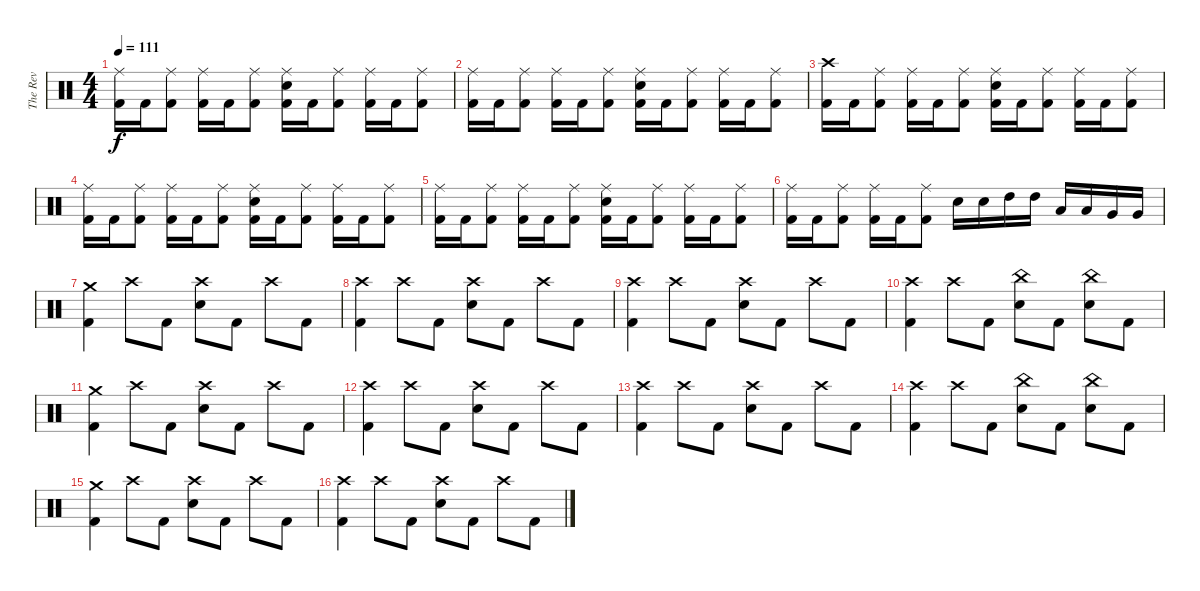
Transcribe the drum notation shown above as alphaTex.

\track ("The Rev" "The Rev") {instrument percussion}
\staff {score}
\articulation defaults
\ts (4 4)
\tempo 111
\clef neutral
\ks c
("Ride (middle)" "Kick (hit) 2").16{dy f} "Kick (hit) 2".16 ("Ride (middle)" "Kick (hit) 2").8 ("Ride (middle)" "Kick (hit) 2").16 "Kick (hit) 2".16 ("Ride (middle)" "Kick (hit) 2").8 ("Ride (middle)" "Snare (hit) 2" "Kick (hit) 2").16 "Kick (hit) 2".16 ("Ride (middle)" "Kick (hit) 2").8 ("Ride (middle)" "Kick (hit) 2").16 "Kick (hit) 2".16 ("Ride (middle)" "Kick (hit) 2").8 |
("Ride (middle)" "Kick (hit) 2").16 "Kick (hit) 2".16 ("Ride (middle)" "Kick (hit) 2").8 ("Ride (middle)" "Kick (hit) 2").16 "Kick (hit) 2".16 ("Ride (middle)" "Kick (hit) 2").8 ("Ride (middle)" "Snare (hit) 2" "Kick (hit) 2").16 "Kick (hit) 2".16 ("Ride (middle)" "Kick (hit) 2").8 ("Ride (middle)" "Kick (hit) 2").16 "Kick (hit) 2".16 ("Ride (middle)" "Kick (hit) 2").8 |
("Crash high (hit)" "Kick (hit) 2").16 "Kick (hit) 2".16 ("Ride (middle)" "Kick (hit) 2").8 ("Ride (middle)" "Kick (hit) 2").16 "Kick (hit) 2".16 ("Ride (middle)" "Kick (hit) 2").8 ("Ride (middle)" "Snare (hit) 2" "Kick (hit) 2").16 "Kick (hit) 2".16 ("Ride (middle)" "Kick (hit) 2").8 ("Ride (middle)" "Kick (hit) 2").16 "Kick (hit) 2".16 ("Ride (middle)" "Kick (hit) 2").8 |
("Ride (middle)" "Kick (hit) 2").16 "Kick (hit) 2".16 ("Ride (middle)" "Kick (hit) 2").8 ("Ride (middle)" "Kick (hit) 2").16 "Kick (hit) 2".16 ("Ride (middle)" "Kick (hit) 2").8 ("Ride (middle)" "Snare (hit) 2" "Kick (hit) 2").16 "Kick (hit) 2".16 ("Ride (middle)" "Kick (hit) 2").8 ("Ride (middle)" "Kick (hit) 2").16 "Kick (hit) 2".16 ("Ride (middle)" "Kick (hit) 2").8 |
("Ride (middle)" "Kick (hit) 2").16 "Kick (hit) 2".16 ("Ride (middle)" "Kick (hit) 2").8 ("Ride (middle)" "Kick (hit) 2").16 "Kick (hit) 2".16 ("Ride (middle)" "Kick (hit) 2").8 ("Ride (middle)" "Snare (hit) 2" "Kick (hit) 2").16 "Kick (hit) 2".16 ("Ride (middle)" "Kick (hit) 2").8 ("Ride (middle)" "Kick (hit) 2").16 "Kick (hit) 2".16 ("Ride (middle)" "Kick (hit) 2").8 |
("Ride (middle)" "Kick (hit) 2").16 "Kick (hit) 2".16 ("Ride (middle)" "Kick (hit) 2").8 ("Ride (middle)" "Kick (hit) 2").16 "Kick (hit) 2".16 ("Ride (middle)" "Kick (hit) 2").8 "Snare (hit) 2".16 "Snare (hit) 2".16 "High Tom (hit)".16 "High Tom (hit)".16 "Low Tom (hit)".16 "Low Tom (hit)".16 "Very Low Tom (hit)".16 "Very Low Tom (hit)".16 |
("Crash medium (hit)" "Kick (hit) 2").4 "Crash high (hit)".8 "Kick (hit) 2".8 ("Crash high (hit)" "Snare (hit) 2").8 "Kick (hit) 2".8 "Crash high (hit)".8 "Kick (hit) 2".8 |
("Crash high (hit)" "Kick (hit) 2").4 "Crash high (hit)".8 "Kick (hit) 2".8 ("Crash high (hit)" "Snare (hit) 2").8 "Kick (hit) 2".8 "Crash high (hit)".8 "Kick (hit) 2".8 |
("Crash high (hit)" "Kick (hit) 2").4 "Crash high (hit)".8 "Kick (hit) 2".8 ("Crash high (hit)" "Snare (hit) 2").8 "Kick (hit) 2".8 "Crash high (hit)".8 "Kick (hit) 2".8 |
("Crash high (hit)" "Kick (hit) 2").4 "Crash high (hit)".8 "Kick (hit) 2".8 ("China (hit)" "Snare (hit) 2").8 "Kick (hit) 2".8 ("China (hit)" "Snare (hit) 2").8 "Kick (hit) 2".8 |
("Crash medium (hit)" "Kick (hit) 2").4 "Crash high (hit)".8 "Kick (hit) 2".8 ("Crash high (hit)" "Snare (hit) 2").8 "Kick (hit) 2".8 "Crash high (hit)".8 "Kick (hit) 2".8 |
("Crash high (hit)" "Kick (hit) 2").4 "Crash high (hit)".8 "Kick (hit) 2".8 ("Crash high (hit)" "Snare (hit) 2").8 "Kick (hit) 2".8 "Crash high (hit)".8 "Kick (hit) 2".8 |
("Crash high (hit)" "Kick (hit) 2").4 "Crash high (hit)".8 "Kick (hit) 2".8 ("Crash high (hit)" "Snare (hit) 2").8 "Kick (hit) 2".8 "Crash high (hit)".8 "Kick (hit) 2".8 |
("Crash high (hit)" "Kick (hit) 2").4 "Crash high (hit)".8 "Kick (hit) 2".8 ("China (hit)" "Snare (hit) 2").8 "Kick (hit) 2".8 ("China (hit)" "Snare (hit) 2").8 "Kick (hit) 2".8 |
("Crash medium (hit)" "Kick (hit) 2").4 "Crash high (hit)".8 "Kick (hit) 2".8 ("Crash high (hit)" "Snare (hit) 2").8 "Kick (hit) 2".8 "Crash high (hit)".8 "Kick (hit) 2".8 |
("Crash high (hit)" "Kick (hit) 2").4 "Crash high (hit)".8 "Kick (hit) 2".8 ("Crash high (hit)" "Snare (hit) 2").8 "Kick (hit) 2".8 "Crash high (hit)".8 "Kick (hit) 2".8
